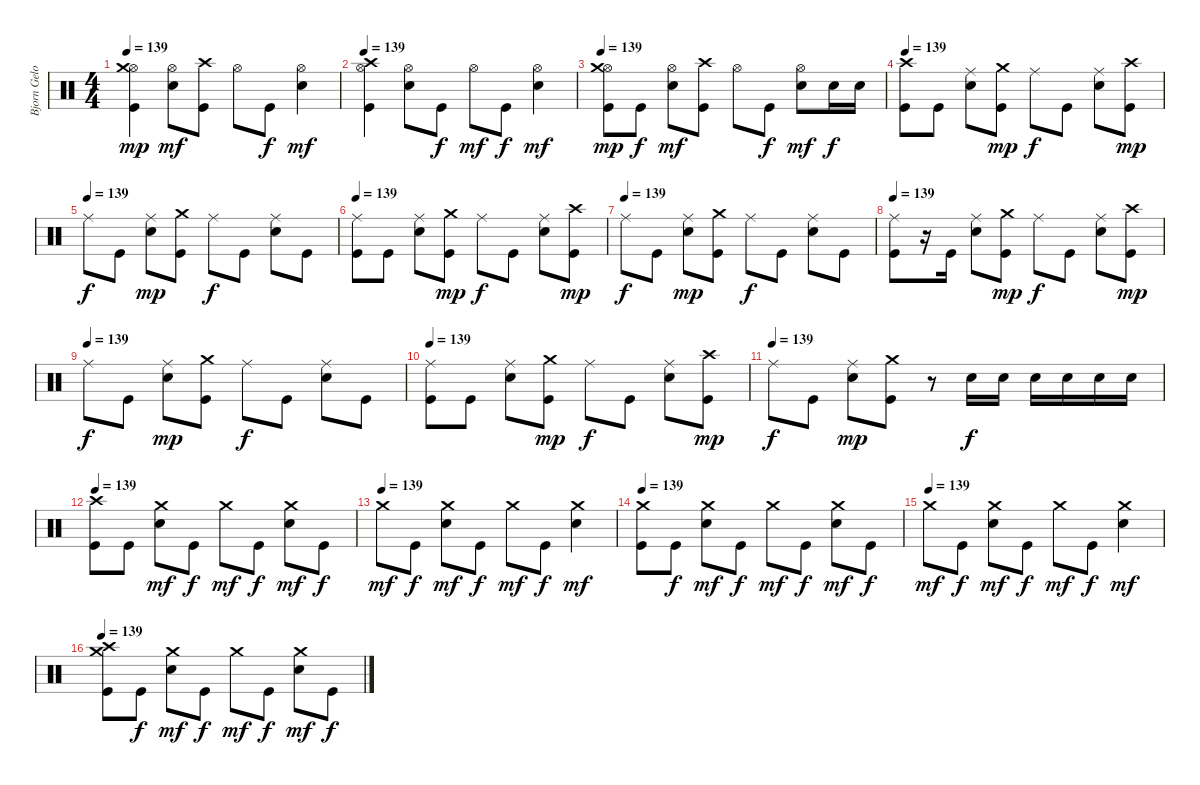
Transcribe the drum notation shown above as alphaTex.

\track ("Bjorn Gelotte-Drum" "Bjorn Gelo") {instrument percussion}
\staff {score}
\articulation defaults
\ts (4 4)
\tempo 139
\clef neutral
\ks c
("Kick (hit)" "Hi-Hat (open)" "Crash medium (hit)").4{dy mp} ("Electric Snare (hit)" "Hi-Hat (open)").8{dy mf} ("Kick (hit)" "Crash high (hit)").8 "Hi-Hat (open)".8 "Kick (hit)".8{dy f} ("Electric Snare (hit)" "Hi-Hat (open)").4{dy mf} |
\tempo 139
("Kick (hit)" "Hi-Hat (open)" "Crash high (hit)").4 ("Electric Snare (hit)" "Hi-Hat (open)").8 "Kick (hit)".8{dy f} "Hi-Hat (open)".8{dy mf} "Kick (hit)".8{dy f} ("Electric Snare (hit)" "Hi-Hat (open)").4{dy mf} |
\tempo 139
("Kick (hit)" "Hi-Hat (open)" "Crash medium (hit)").8{dy mp} "Kick (hit)".8{dy f} ("Electric Snare (hit)" "Hi-Hat (open)").8{dy mf} ("Kick (hit)" "Crash high (hit)").8 "Hi-Hat (open)".8 "Kick (hit)".8{dy f} ("Electric Snare (hit)" "Hi-Hat (open)").8{dy mf} "Electric Snare (hit)".16{dy f} "Electric Snare (hit)".16 |
\tempo 139
("Kick (hit)" "Crash high (hit)").8 "Kick (hit)".8 ("Electric Snare (hit)" "Ride (middle)").8 ("Kick (hit)" "Crash medium (hit)").8{dy mp} "Ride (middle)".8{dy f} "Kick (hit)".8 ("Electric Snare (hit)" "Ride (middle)").8 ("Kick (hit)" "Crash high (hit)").8{dy mp} |
\tempo (139)
"Ride (middle)".8{dy f} "Kick (hit)".8 ("Electric Snare (hit)" "Ride (middle)").8{dy mp} ("Kick (hit)" "Crash medium (hit)").8 "Ride (middle)".8{dy f} "Kick (hit)".8 ("Electric Snare (hit)" "Ride (middle)").8 "Kick (hit)".8 |
\tempo 139
("Kick (hit)" "Ride (middle)").8 "Kick (hit)".8 ("Electric Snare (hit)" "Ride (middle)").8 ("Kick (hit)" "Crash medium (hit)").8{dy mp} "Ride (middle)".8{dy f} "Kick (hit)".8 ("Electric Snare (hit)" "Ride (middle)").8 ("Kick (hit)" "Crash high (hit)").8{dy mp} |
\tempo (139)
"Ride (middle)".8{dy f} "Kick (hit)".8 ("Electric Snare (hit)" "Ride (middle)").8{dy mp} ("Kick (hit)" "Crash medium (hit)").8 "Ride (middle)".8{dy f} "Kick (hit)".8 ("Electric Snare (hit)" "Ride (middle)").8 "Kick (hit)".8 |
\tempo 139
("Kick (hit)" "Ride (middle)").8 r.16 "Kick (hit)".16 ("Electric Snare (hit)" "Ride (middle)").8 ("Kick (hit)" "Crash medium (hit)").8{dy mp} "Ride (middle)".8{dy f} "Kick (hit)".8 ("Electric Snare (hit)" "Ride (middle)").8 ("Kick (hit)" "Crash high (hit)").8{dy mp} |
\tempo (139)
"Ride (middle)".8{dy f} "Kick (hit)".8 ("Electric Snare (hit)" "Ride (middle)").8{dy mp} ("Kick (hit)" "Crash medium (hit)").8 "Ride (middle)".8{dy f} "Kick (hit)".8 ("Electric Snare (hit)" "Ride (middle)").8 "Kick (hit)".8 |
\tempo 139
("Kick (hit)" "Ride (middle)").8 "Kick (hit)".8 ("Electric Snare (hit)" "Ride (middle)").8 ("Kick (hit)" "Crash medium (hit)").8{dy mp} "Ride (middle)".8{dy f} "Kick (hit)".8 ("Electric Snare (hit)" "Ride (middle)").8 ("Kick (hit)" "Crash high (hit)").8{dy mp} |
\tempo (139)
"Ride (middle)".8{dy f} "Kick (hit)".8 ("Electric Snare (hit)" "Ride (middle)").8{dy mp} ("Kick (hit)" "Crash medium (hit)").8 r.8 "Electric Snare (hit)".16{dy f} "Electric Snare (hit)".16 "Electric Snare (hit)".16 "Electric Snare (hit)".16 "Electric Snare (hit)".16 "Electric Snare (hit)".16 |
\tempo 139
("Kick (hit)" "Crash high (hit)").8 "Kick (hit)".8 ("Electric Snare (hit)" "Crash medium (hit)").8{dy mf} "Kick (hit)".8{dy f} "Crash medium (hit)".8{dy mf} "Kick (hit)".8{dy f} ("Electric Snare (hit)" "Crash medium (hit)").8{dy mf} "Kick (hit)".8{dy f} |
\tempo (139)
"Crash medium (hit)".8{dy mf} "Kick (hit)".8{dy f} ("Electric Snare (hit)" "Crash medium (hit)").8{dy mf} "Kick (hit)".8{dy f} "Crash medium (hit)".8{dy mf} "Kick (hit)".8{dy f} ("Electric Snare (hit)" "Crash medium (hit)").4{dy mf} |
\tempo 139
("Kick (hit)" "Crash medium (hit)").8 "Kick (hit)".8{dy f} ("Electric Snare (hit)" "Crash medium (hit)").8{dy mf} "Kick (hit)".8{dy f} "Crash medium (hit)".8{dy mf} "Kick (hit)".8{dy f} ("Electric Snare (hit)" "Crash medium (hit)").8{dy mf} "Kick (hit)".8{dy f} |
\tempo (139)
"Crash medium (hit)".8{dy mf} "Kick (hit)".8{dy f} ("Electric Snare (hit)" "Crash medium (hit)").8{dy mf} "Kick (hit)".8{dy f} "Crash medium (hit)".8{dy mf} "Kick (hit)".8{dy f} ("Electric Snare (hit)" "Crash medium (hit)").4{dy mf} |
\tempo 139
("Kick (hit)" "Crash medium (hit)" "Crash high (hit)").8 "Kick (hit)".8{dy f} ("Electric Snare (hit)" "Crash medium (hit)").8{dy mf} "Kick (hit)".8{dy f} "Crash medium (hit)".8{dy mf} "Kick (hit)".8{dy f} ("Electric Snare (hit)" "Crash medium (hit)").8{dy mf} "Kick (hit)".8{dy f}
